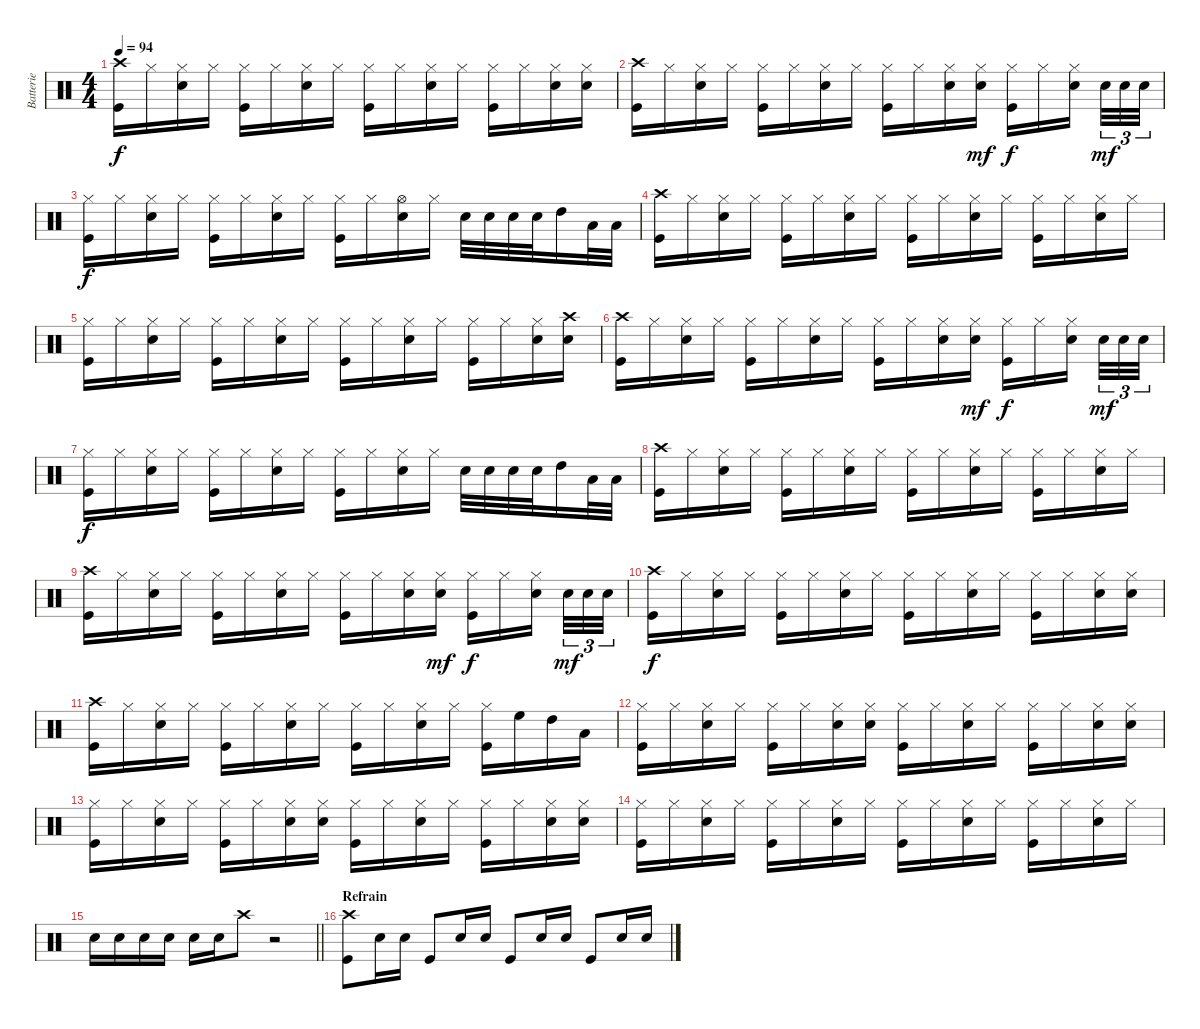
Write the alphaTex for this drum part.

\track ("Batterie" "Batterie") {instrument percussion}
\staff {score}
\articulation defaults
\ts (4 4)
\tempo 94
\clef neutral
\ks c
("Crash high (hit)" "Kick (hit)").16{dy f} "Hi-Hat (closed)".16 ("Hi-Hat (closed)" "Snare (hit) 2").16 "Hi-Hat (closed)".16 ("Hi-Hat (closed)" "Kick (hit)").16 "Hi-Hat (closed)".16 ("Hi-Hat (closed)" "Snare (hit) 2").16 "Hi-Hat (closed)".16 ("Hi-Hat (closed)" "Kick (hit)").16 "Hi-Hat (closed)".16 ("Hi-Hat (closed)" "Snare (hit) 2").16 "Hi-Hat (closed)".16 ("Hi-Hat (closed)" "Kick (hit)").16 "Hi-Hat (closed)".16 ("Hi-Hat (closed)" "Snare (hit) 2").16 ("Hi-Hat (closed)" "Snare (hit) 2").16 |
("Crash high (hit)" "Kick (hit)").16 "Hi-Hat (closed)".16 ("Hi-Hat (closed)" "Snare (hit) 2").16 "Hi-Hat (closed)".16 ("Hi-Hat (closed)" "Kick (hit)").16 "Hi-Hat (closed)".16 ("Hi-Hat (closed)" "Snare (hit) 2").16 "Hi-Hat (closed)".16 ("Hi-Hat (closed)" "Kick (hit)").16 "Hi-Hat (closed)".16 ("Hi-Hat (closed)" "Snare (hit) 2").16 ("Hi-Hat (closed)" "Snare (hit) 2").16{dy mf} ("Hi-Hat (closed)" "Kick (hit)").16{dy f} "Hi-Hat (closed)".16 ("Hi-Hat (closed)" "Snare (hit) 2").16 "Snare (hit) 2".32{tu (3 2) dy mf} "Snare (hit) 2".32{tu (3 2)} "Snare (hit) 2".32{tu (3 2)} |
("Hi-Hat (closed)" "Kick (hit)").16{dy f} "Hi-Hat (closed)".16 ("Hi-Hat (closed)" "Snare (hit) 2").16 "Hi-Hat (closed)".16 ("Hi-Hat (closed)" "Kick (hit)").16 "Hi-Hat (closed)".16 ("Hi-Hat (closed)" "Snare (hit) 2").16 "Hi-Hat (closed)".16 ("Hi-Hat (closed)" "Kick (hit)").16 "Hi-Hat (closed)".16 ("Hi-Hat (open)" "Snare (hit) 2").16 "Hi-Hat (closed)".16 "Snare (hit) 2".32 "Snare (hit) 2".32 "Snare (hit) 2".32 "Snare (hit) 2".32 "High Tom (hit)".16 "Low Floor Tom (hit)".32 "Low Floor Tom (hit)".32 |
("Crash high (hit)" "Kick (hit)").16 "Hi-Hat (closed)".16 ("Hi-Hat (closed)" "Snare (hit) 2").16 "Hi-Hat (closed)".16 ("Hi-Hat (closed)" "Kick (hit)").16 "Hi-Hat (closed)".16 ("Hi-Hat (closed)" "Snare (hit) 2").16 "Hi-Hat (closed)".16 ("Hi-Hat (closed)" "Kick (hit)").16 "Hi-Hat (closed)".16 ("Hi-Hat (closed)" "Snare (hit) 2").16 "Hi-Hat (closed)".16 ("Hi-Hat (closed)" "Kick (hit)").16 "Hi-Hat (closed)".16 ("Hi-Hat (closed)" "Snare (hit) 2").16 "Hi-Hat (closed)".16 |
("Hi-Hat (closed)" "Kick (hit)").16 "Hi-Hat (closed)".16 ("Hi-Hat (closed)" "Snare (hit) 2").16 "Hi-Hat (closed)".16 ("Hi-Hat (closed)" "Kick (hit)").16 "Hi-Hat (closed)".16 ("Hi-Hat (closed)" "Snare (hit) 2").16 "Hi-Hat (closed)".16 ("Hi-Hat (closed)" "Kick (hit)").16 "Hi-Hat (closed)".16 ("Hi-Hat (closed)" "Snare (hit) 2").16 "Hi-Hat (closed)".16 ("Hi-Hat (closed)" "Kick (hit)").16 "Hi-Hat (closed)".16 ("Hi-Hat (closed)" "Snare (hit) 2").16 ("Crash high (hit)" "Snare (hit) 2").16 |
("Crash high (hit)" "Kick (hit)").16 "Hi-Hat (closed)".16 ("Hi-Hat (closed)" "Snare (hit) 2").16 "Hi-Hat (closed)".16 ("Hi-Hat (closed)" "Kick (hit)").16 "Hi-Hat (closed)".16 ("Hi-Hat (closed)" "Snare (hit) 2").16 "Hi-Hat (closed)".16 ("Hi-Hat (closed)" "Kick (hit)").16 "Hi-Hat (closed)".16 ("Hi-Hat (closed)" "Snare (hit) 2").16 ("Hi-Hat (closed)" "Snare (hit) 2").16{dy mf} ("Hi-Hat (closed)" "Kick (hit)").16{dy f} "Hi-Hat (closed)".16 ("Hi-Hat (closed)" "Snare (hit) 2").16 "Snare (hit) 2".32{tu (3 2) dy mf} "Snare (hit) 2".32{tu (3 2)} "Snare (hit) 2".32{tu (3 2)} |
("Hi-Hat (closed)" "Kick (hit)").16{dy f} "Hi-Hat (closed)".16 ("Hi-Hat (closed)" "Snare (hit) 2").16 "Hi-Hat (closed)".16 ("Hi-Hat (closed)" "Kick (hit)").16 "Hi-Hat (closed)".16 ("Hi-Hat (closed)" "Snare (hit) 2").16 "Hi-Hat (closed)".16 ("Hi-Hat (closed)" "Kick (hit)").16 "Hi-Hat (closed)".16 ("Hi-Hat (closed)" "Snare (hit) 2").16 "Hi-Hat (closed)".16 "Snare (hit) 2".32 "Snare (hit) 2".32 "Snare (hit) 2".32 "Snare (hit) 2".32 "High Tom (hit)".16 "Low Floor Tom (hit)".32 "Low Floor Tom (hit)".32 |
("Crash high (hit)" "Kick (hit)").16 "Hi-Hat (closed)".16 ("Hi-Hat (closed)" "Snare (hit) 2").16 "Hi-Hat (closed)".16 ("Hi-Hat (closed)" "Kick (hit)").16 "Hi-Hat (closed)".16 ("Hi-Hat (closed)" "Snare (hit) 2").16 "Hi-Hat (closed)".16 ("Hi-Hat (closed)" "Kick (hit)").16 "Hi-Hat (closed)".16 ("Hi-Hat (closed)" "Snare (hit) 2").16 "Hi-Hat (closed)".16 ("Hi-Hat (closed)" "Kick (hit)").16 "Hi-Hat (closed)".16 ("Hi-Hat (closed)" "Snare (hit) 2").16 "Hi-Hat (closed)".16 |
("Crash high (hit)" "Kick (hit)").16 "Hi-Hat (closed)".16 ("Hi-Hat (closed)" "Snare (hit) 2").16 "Hi-Hat (closed)".16 ("Hi-Hat (closed)" "Kick (hit)").16 "Hi-Hat (closed)".16 ("Hi-Hat (closed)" "Snare (hit) 2").16 "Hi-Hat (closed)".16 ("Hi-Hat (closed)" "Kick (hit)").16 "Hi-Hat (closed)".16 ("Hi-Hat (closed)" "Snare (hit) 2").16 ("Hi-Hat (closed)" "Snare (hit) 2").16{dy mf} ("Hi-Hat (closed)" "Kick (hit)").16{dy f} "Hi-Hat (closed)".16 ("Hi-Hat (closed)" "Snare (hit) 2").16 "Snare (hit) 2".32{tu (3 2) dy mf} "Snare (hit) 2".32{tu (3 2)} "Snare (hit) 2".32{tu (3 2)} |
("Crash high (hit)" "Kick (hit)").16{dy f} "Hi-Hat (closed)".16 ("Hi-Hat (closed)" "Snare (hit) 2").16 "Hi-Hat (closed)".16 ("Hi-Hat (closed)" "Kick (hit)").16 "Hi-Hat (closed)".16 ("Hi-Hat (closed)" "Snare (hit) 2").16 "Hi-Hat (closed)".16 ("Hi-Hat (closed)" "Kick (hit)").16 "Hi-Hat (closed)".16 ("Hi-Hat (closed)" "Snare (hit) 2").16 "Hi-Hat (closed)".16 ("Hi-Hat (closed)" "Kick (hit)").16 "Hi-Hat (closed)".16 ("Hi-Hat (closed)" "Snare (hit) 2").16 ("Hi-Hat (closed)" "Snare (hit) 2").16 |
("Crash high (hit)" "Kick (hit)").16 "Hi-Hat (closed)".16 ("Hi-Hat (closed)" "Snare (hit) 2").16 "Hi-Hat (closed)".16 ("Hi-Hat (closed)" "Kick (hit)").16 "Hi-Hat (closed)".16 ("Hi-Hat (closed)" "Snare (hit) 2").16 "Hi-Hat (closed)".16 ("Hi-Hat (closed)" "Kick (hit)").16 "Hi-Hat (closed)".16 ("Hi-Hat (closed)" "Snare (hit) 2").16 "Hi-Hat (closed)".16 ("Hi-Hat (closed)" "Kick (hit)").16 "High Floor Tom (hit)".16 "High Tom (hit)".16 "Low Floor Tom (hit)".16 |
("Hi-Hat (closed)" "Kick (hit)").16 "Hi-Hat (closed)".16 ("Hi-Hat (closed)" "Snare (hit) 2").16 "Hi-Hat (closed)".16 ("Hi-Hat (closed)" "Kick (hit)").16 "Hi-Hat (closed)".16 ("Hi-Hat (closed)" "Snare (hit) 2").16 ("Hi-Hat (closed)" "Snare (hit) 2").16 ("Hi-Hat (closed)" "Kick (hit)").16 "Hi-Hat (closed)".16 ("Hi-Hat (closed)" "Snare (hit) 2").16 "Hi-Hat (closed)".16 ("Hi-Hat (closed)" "Kick (hit)").16 "Hi-Hat (closed)".16 ("Hi-Hat (closed)" "Snare (hit) 2").16 ("Hi-Hat (closed)" "Snare (hit) 2").16 |
("Hi-Hat (closed)" "Kick (hit)").16 "Hi-Hat (closed)".16 ("Hi-Hat (closed)" "Snare (hit) 2").16 "Hi-Hat (closed)".16 ("Hi-Hat (closed)" "Kick (hit)").16 "Hi-Hat (closed)".16 ("Hi-Hat (closed)" "Snare (hit) 2").16 ("Hi-Hat (closed)" "Snare (hit) 2").16 ("Hi-Hat (closed)" "Kick (hit)").16 "Hi-Hat (closed)".16 ("Hi-Hat (closed)" "Snare (hit) 2").16 "Hi-Hat (closed)".16 ("Hi-Hat (closed)" "Kick (hit)").16 "Hi-Hat (closed)".16 ("Hi-Hat (closed)" "Snare (hit) 2").16 ("Hi-Hat (closed)" "Snare (hit) 2").16 |
("Hi-Hat (closed)" "Kick (hit)").16 "Hi-Hat (closed)".16 ("Hi-Hat (closed)" "Snare (hit) 2").16 "Hi-Hat (closed)".16 ("Hi-Hat (closed)" "Kick (hit)").16 "Hi-Hat (closed)".16 ("Hi-Hat (closed)" "Snare (hit) 2").16 "Hi-Hat (closed)".16 ("Hi-Hat (closed)" "Kick (hit)").16 "Hi-Hat (closed)".16 ("Hi-Hat (closed)" "Snare (hit) 2").16 "Hi-Hat (closed)".16 ("Hi-Hat (closed)" "Kick (hit)").16 "Hi-Hat (closed)".16 ("Hi-Hat (closed)" "Snare (hit) 2").16 "Hi-Hat (closed)".16 |
\barLineRight lightlight "Snare (hit) 2".16 "Snare (hit) 2".16 "Snare (hit) 2".16 "Snare (hit) 2".16 "Snare (hit) 2".16 "Snare (hit) 2".16 "Crash high (hit)".8
r.2 |
\section ("" "Refrain")
("Crash high (hit)" "Kick (hit)").8 "Snare (hit) 2".16 "Snare (hit) 2".16 "Kick (hit)".8 "Snare (hit) 2".16 "Snare (hit) 2".16 "Kick (hit)".8 "Snare (hit) 2".16 "Snare (hit) 2".16 "Kick (hit)".8 "Snare (hit) 2".16 "Snare (hit) 2".16
